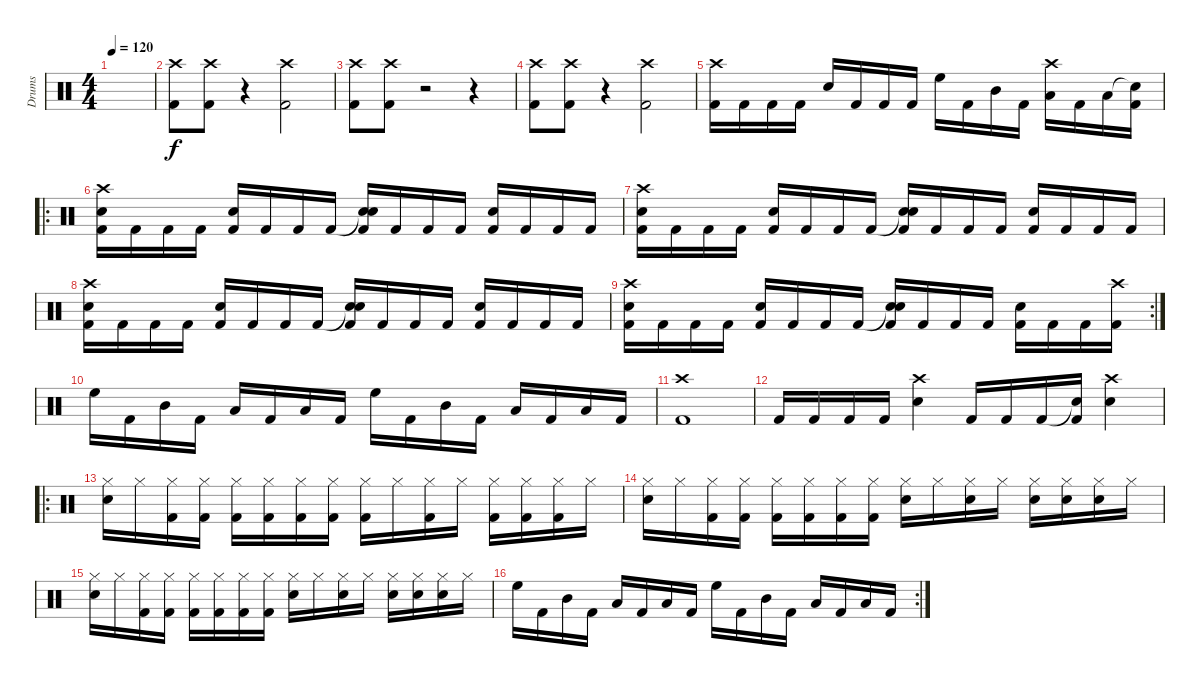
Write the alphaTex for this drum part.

\track ("Drums" "Drums") {instrument percussion}
\staff {score}
\articulation defaults
\ts (4 4)
\tempo 120
\clef neutral
\ks c
|
("Crash high (hit)" "Kick (hit) 2").8 ("Crash high (hit)" "Kick (hit) 2").8 r.4 ("Crash high (hit)" "Kick (hit) 2").2 |
("Crash high (hit)" "Kick (hit) 2").8 ("Crash high (hit)" "Kick (hit) 2").8 r.2 r.4 |
("Crash high (hit)" "Kick (hit) 2").8 ("Crash high (hit)" "Kick (hit) 2").8 r.4 ("Crash high (hit)" "Kick (hit) 2").2 |
("Crash high (hit)" "Kick (hit) 2").16 "Kick (hit) 2".16 "Kick (hit) 2".16 "Kick (hit) 2".16 "Snare (hit) 2".16 "Kick (hit) 2".16 "Kick (hit) 2".16 "Kick (hit) 2".16 "High Floor Tom (hit)".16 "Kick (hit) 2".16 "Mid Tom (hit)".16 "Kick (hit) 2".16 ("Crash high (hit)" "Low Tom (hit)").16 "Kick (hit) 2".16 "Low Floor Tom (hit)".16 ("Snare (hit)"{t} "Kick (hit) 2").16 |
\ro
("Crash high (hit)" "Snare (hit) 2" "Kick (hit) 2").16 "Kick (hit) 2".16 "Kick (hit) 2".16 "Kick (hit) 2".16 ("Snare (hit) 2" "Kick (hit) 2").16 "Kick (hit) 2".16 "Kick (hit) 2".16 "Kick (hit) 2".16 ("Snare (hit)"{t} "Snare (hit) 2" "Kick (hit) 2").16 "Kick (hit) 2".16 "Kick (hit) 2".16 "Kick (hit) 2".16 ("Snare (hit) 2" "Kick (hit) 2").16 "Kick (hit) 2".16 "Kick (hit) 2".16 "Kick (hit) 2".16 |
("Crash high (hit)" "Snare (hit) 2" "Kick (hit) 2").16 "Kick (hit) 2".16 "Kick (hit) 2".16 "Kick (hit) 2".16 ("Snare (hit) 2" "Kick (hit) 2").16 "Kick (hit) 2".16 "Kick (hit) 2".16 "Kick (hit) 2".16 ("Snare (hit)"{t} "Snare (hit) 2" "Kick (hit) 2").16 "Kick (hit) 2".16 "Kick (hit) 2".16 "Kick (hit) 2".16 ("Snare (hit) 2" "Kick (hit) 2").16 "Kick (hit) 2".16 "Kick (hit) 2".16 "Kick (hit) 2".16 |
("Crash high (hit)" "Snare (hit) 2" "Kick (hit) 2").16 "Kick (hit) 2".16 "Kick (hit) 2".16 "Kick (hit) 2".16 ("Snare (hit) 2" "Kick (hit) 2").16 "Kick (hit) 2".16 "Kick (hit) 2".16 "Kick (hit) 2".16 ("Snare (hit)"{t} "Snare (hit) 2" "Kick (hit) 2").16 "Kick (hit) 2".16 "Kick (hit) 2".16 "Kick (hit) 2".16 ("Snare (hit) 2" "Kick (hit) 2").16 "Kick (hit) 2".16 "Kick (hit) 2".16 "Kick (hit) 2".16 |
\rc 2
("Crash high (hit)" "Snare (hit) 2" "Kick (hit) 2").16 "Kick (hit) 2".16 "Kick (hit) 2".16 "Kick (hit) 2".16 ("Snare (hit) 2" "Kick (hit) 2").16 "Kick (hit) 2".16 "Kick (hit) 2".16 "Kick (hit) 2".16 ("Snare (hit)"{t} "Snare (hit) 2" "Kick (hit) 2").16 "Kick (hit) 2".16 "Kick (hit) 2".16 "Kick (hit) 2".16 ("Snare (hit) 2" "Kick (hit) 2").16 "Kick (hit) 2".16 "Kick (hit) 2".16 ("Crash high (hit)" "Kick (hit) 2").16 |
"High Floor Tom (hit)".16 "Kick (hit) 2".16 "Mid Tom (hit)".16 "Kick (hit) 2".16 "Low Tom (hit)".16 "Kick (hit) 2".16 "Low Floor Tom (hit)".16 "Kick (hit) 2".16 "High Floor Tom (hit)".16 "Kick (hit) 2".16 "Mid Tom (hit)".16 "Kick (hit) 2".16 "Low Tom (hit)".16 "Kick (hit) 2".16 "Low Floor Tom (hit)".16 "Kick (hit) 2".16 |
("Crash high (hit)" "Kick (hit) 2").1 |
"Kick (hit) 2".16 "Kick (hit) 2".16 "Kick (hit) 2".16 "Kick (hit) 2".16 ("Crash high (hit)" "Snare (hit) 2").4 "Kick (hit) 2".16 "Kick (hit) 2".16 "Kick (hit) 2".16 ("Snare (hit)"{t} "Kick (hit) 2").16 ("Crash high (hit)" "Snare (hit) 2").4 |
\ro
("Hi-Hat (closed)" "Snare (hit) 2").16 "Hi-Hat (closed)".16 ("Hi-Hat (closed)" "Kick (hit) 2").16 ("Hi-Hat (closed)" "Kick (hit) 2").16 ("Hi-Hat (closed)" "Kick (hit) 2").16 ("Hi-Hat (closed)" "Kick (hit) 2").16 ("Hi-Hat (closed)" "Kick (hit) 2").16 ("Hi-Hat (closed)" "Kick (hit) 2").16 ("Hi-Hat (closed)" "Kick (hit) 2").16 "Hi-Hat (closed)".16 ("Hi-Hat (closed)" "Kick (hit) 2").16 "Hi-Hat (closed)".16 ("Hi-Hat (closed)" "Kick (hit) 2").16 ("Hi-Hat (closed)" "Kick (hit) 2").16 ("Hi-Hat (closed)" "Kick (hit) 2").16 "Hi-Hat (closed)".16 |
("Hi-Hat (closed)" "Snare (hit) 2").16 "Hi-Hat (closed)".16 ("Hi-Hat (closed)" "Kick (hit) 2").16 ("Hi-Hat (closed)" "Kick (hit) 2").16 ("Hi-Hat (closed)" "Kick (hit) 2").16 ("Hi-Hat (closed)" "Kick (hit) 2").16 ("Hi-Hat (closed)" "Kick (hit) 2").16 ("Hi-Hat (closed)" "Kick (hit) 2").16 ("Hi-Hat (closed)" "Snare (hit) 2").16 "Hi-Hat (closed)".16 ("Hi-Hat (closed)" "Snare (hit) 2").16 "Hi-Hat (closed)".16 ("Hi-Hat (closed)" "Snare (hit) 2").16 ("Hi-Hat (closed)" "Snare (hit) 2").16 ("Hi-Hat (closed)" "Snare (hit) 2").16 "Hi-Hat (closed)".16 |
("Hi-Hat (closed)" "Snare (hit) 2").16 "Hi-Hat (closed)".16 ("Hi-Hat (closed)" "Kick (hit) 2").16 ("Hi-Hat (closed)" "Kick (hit) 2").16 ("Hi-Hat (closed)" "Kick (hit) 2").16 ("Hi-Hat (closed)" "Kick (hit) 2").16 ("Hi-Hat (closed)" "Kick (hit) 2").16 ("Hi-Hat (closed)" "Kick (hit) 2").16 ("Hi-Hat (closed)" "Snare (hit) 2").16 "Hi-Hat (closed)".16 ("Hi-Hat (closed)" "Snare (hit) 2").16 "Hi-Hat (closed)".16 ("Hi-Hat (closed)" "Snare (hit) 2").16 ("Hi-Hat (closed)" "Snare (hit) 2").16 ("Hi-Hat (closed)" "Snare (hit) 2").16 "Hi-Hat (closed)".16 |
\rc 2 "High Floor Tom (hit)".16 "Kick (hit) 2".16 "Mid Tom (hit)".16 "Kick (hit) 2".16 "Low Tom (hit)".16 "Kick (hit) 2".16 "Low Floor Tom (hit)".16 "Kick (hit) 2".16 "High Floor Tom (hit)".16 "Kick (hit) 2".16 "Mid Tom (hit)".16 "Kick (hit) 2".16 "Low Tom (hit)".16 "Kick (hit) 2".16 "Low Floor Tom (hit)".16 "Kick (hit) 2".16
